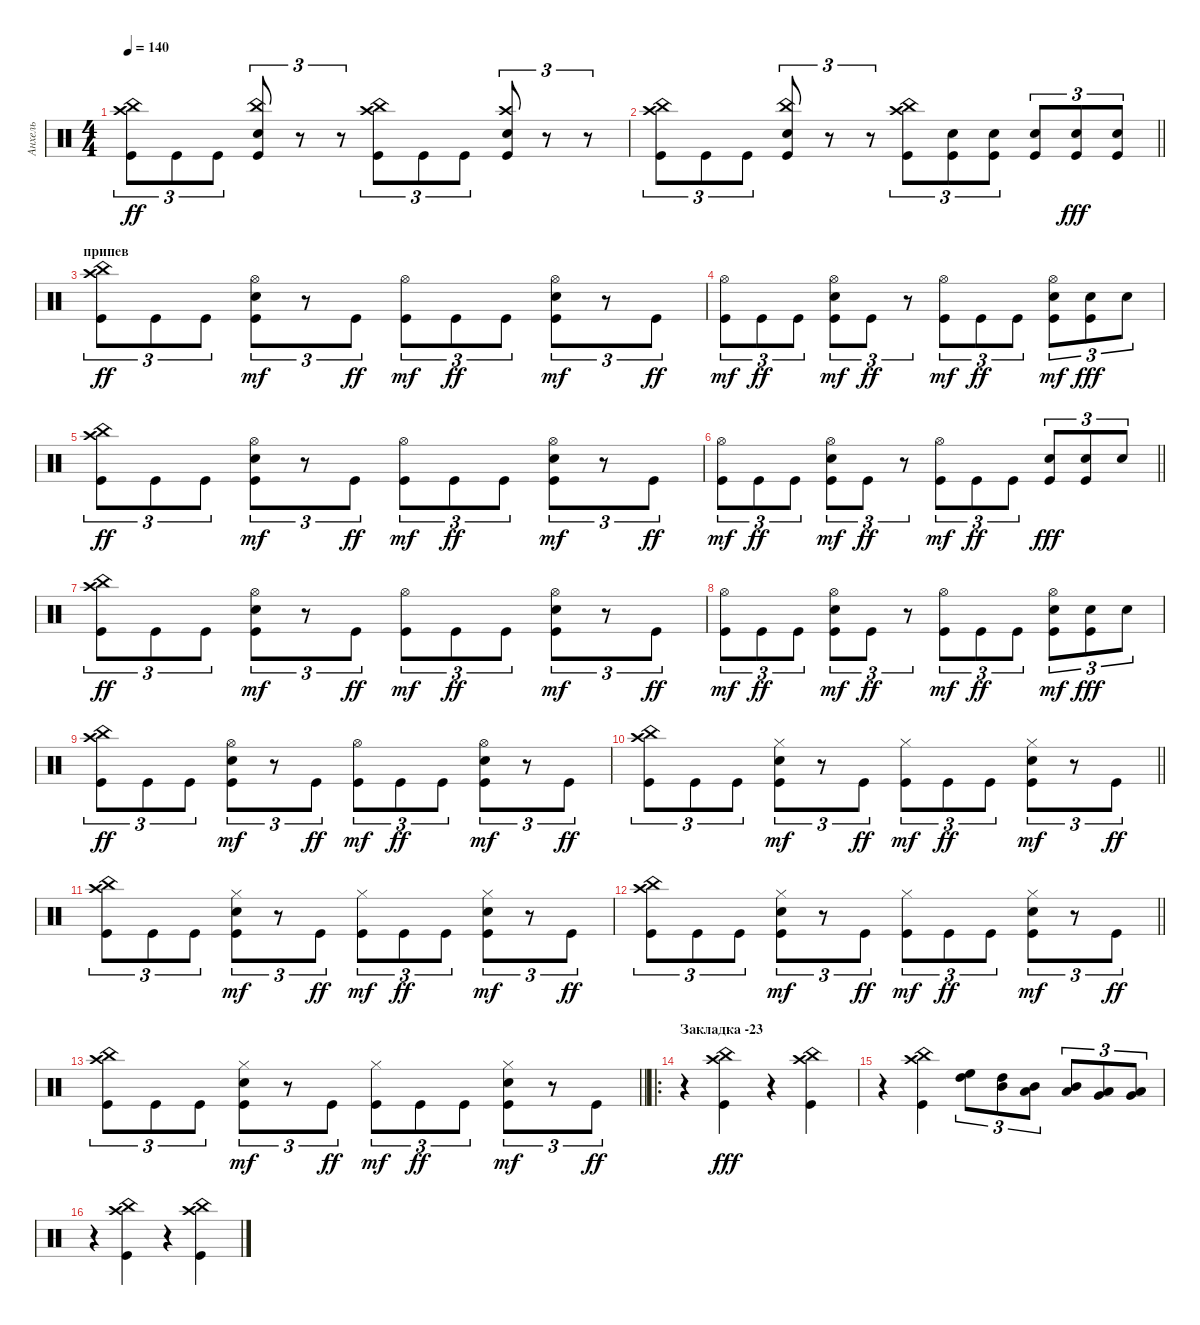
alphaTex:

\track ("Анхель" "Анхель") {instrument percussion}
\staff {score}
\articulation defaults
\ts (4 4)
\tempo 140
\clef neutral
\ks c
("Kick (hit)" "China (hit)" "Crash high (hit)").8{tu (3 2) dy ff} "Kick (hit)".8{tu (3 2)} "Kick (hit)".8{tu (3 2)} ("Kick (hit)" "Snare (hit) 2" "China (hit)").8{tu (3 2)} r.8{tu (3 2)} r.8{tu (3 2)} ("Kick (hit)" "China (hit)" "Crash high (hit)").8{tu (3 2)} "Kick (hit)".8{tu (3 2)} "Kick (hit)".8{tu (3 2)} ("Kick (hit)" "Snare (hit) 2" "Crash high (hit)").8{tu (3 2)} r.8{tu (3 2)} r.8{tu (3 2)} |
\barLineRight lightlight
("Kick (hit)" "China (hit)" "Crash high (hit)").8{tu (3 2)} "Kick (hit)".8{tu (3 2)} "Kick (hit)".8{tu (3 2)} ("Kick (hit)" "Snare (hit) 2" "China (hit)").8{tu (3 2)} r.8{tu (3 2)} r.8{tu (3 2)} ("Kick (hit)" "China (hit)" "Crash high (hit)").8{tu (3 2)} ("Kick (hit)" "Snare (hit) 2").8{tu (3 2)} ("Kick (hit)" "Snare (hit) 2").8{tu (3 2)} ("Kick (hit)" "Snare (hit) 2").8{tu (3 2)} ("Kick (hit)" "Snare (hit) 2").8{tu (3 2) dy fff} ("Kick (hit)" "Snare (hit) 2").8{tu (3 2)} |
\section ("" "припев")
("Kick (hit)" "China (hit)" "Crash high (hit)").8{tu (3 2) dy ff} "Kick (hit)".8{tu (3 2)} "Kick (hit)".8{tu (3 2)} ("Kick (hit)" "Snare (hit) 2" "Hi-Hat (open)").8{tu (3 2) dy mf} r.8{tu (3 2)} "Kick (hit)".8{tu (3 2) dy ff} ("Kick (hit)" "Hi-Hat (open)").8{tu (3 2) dy mf} "Kick (hit)".8{tu (3 2) dy ff} "Kick (hit)".8{tu (3 2)} ("Kick (hit)" "Snare (hit) 2" "Hi-Hat (open)").8{tu (3 2) dy mf} r.8{tu (3 2)} "Kick (hit)".8{tu (3 2) dy ff} |
("Kick (hit)" "Hi-Hat (open)").8{tu (3 2) dy mf} "Kick (hit)".8{tu (3 2) dy ff} "Kick (hit)".8{tu (3 2)} ("Kick (hit)" "Snare (hit) 2" "Hi-Hat (open)").8{tu (3 2) dy mf} "Kick (hit)".8{tu (3 2) dy ff} r.8{tu (3 2)} ("Kick (hit)" "Hi-Hat (open)").8{tu (3 2) dy mf} "Kick (hit)".8{tu (3 2) dy ff} "Kick (hit)".8{tu (3 2)} ("Kick (hit)" "Snare (hit) 2" "Hi-Hat (open)").8{tu (3 2) dy mf} ("Kick (hit)" "Snare (hit) 2").8{tu (3 2) dy fff} "Snare (hit) 2".8{tu (3 2)} |
("Kick (hit)" "China (hit)" "Crash high (hit)").8{tu (3 2) dy ff} "Kick (hit)".8{tu (3 2)} "Kick (hit)".8{tu (3 2)} ("Kick (hit)" "Snare (hit) 2" "Hi-Hat (open)").8{tu (3 2) dy mf} r.8{tu (3 2)} "Kick (hit)".8{tu (3 2) dy ff} ("Kick (hit)" "Hi-Hat (open)").8{tu (3 2) dy mf} "Kick (hit)".8{tu (3 2) dy ff} "Kick (hit)".8{tu (3 2)} ("Kick (hit)" "Snare (hit) 2" "Hi-Hat (open)").8{tu (3 2) dy mf} r.8{tu (3 2)} "Kick (hit)".8{tu (3 2) dy ff} |
\barLineRight lightlight
("Kick (hit)" "Hi-Hat (open)").8{tu (3 2) dy mf} "Kick (hit)".8{tu (3 2) dy ff} "Kick (hit)".8{tu (3 2)} ("Kick (hit)" "Snare (hit) 2" "Hi-Hat (open)").8{tu (3 2) dy mf} "Kick (hit)".8{tu (3 2) dy ff} r.8{tu (3 2)} ("Kick (hit)" "Hi-Hat (open)").8{tu (3 2) dy mf} "Kick (hit)".8{tu (3 2) dy ff} "Kick (hit)".8{tu (3 2)} ("Kick (hit)" "Snare (hit) 2").8{tu (3 2) dy fff} ("Kick (hit)" "Snare (hit) 2").8{tu (3 2)} "Snare (hit) 2".8{tu (3 2)} |
("Kick (hit)" "China (hit)" "Crash high (hit)").8{tu (3 2) dy ff} "Kick (hit)".8{tu (3 2)} "Kick (hit)".8{tu (3 2)} ("Kick (hit)" "Snare (hit) 2" "Hi-Hat (open)").8{tu (3 2) dy mf} r.8{tu (3 2)} "Kick (hit)".8{tu (3 2) dy ff} ("Kick (hit)" "Hi-Hat (open)").8{tu (3 2) dy mf} "Kick (hit)".8{tu (3 2) dy ff} "Kick (hit)".8{tu (3 2)} ("Kick (hit)" "Snare (hit) 2" "Hi-Hat (open)").8{tu (3 2) dy mf} r.8{tu (3 2)} "Kick (hit)".8{tu (3 2) dy ff} |
("Kick (hit)" "Hi-Hat (open)").8{tu (3 2) dy mf} "Kick (hit)".8{tu (3 2) dy ff} "Kick (hit)".8{tu (3 2)} ("Kick (hit)" "Snare (hit) 2" "Hi-Hat (open)").8{tu (3 2) dy mf} "Kick (hit)".8{tu (3 2) dy ff} r.8{tu (3 2)} ("Kick (hit)" "Hi-Hat (open)").8{tu (3 2) dy mf} "Kick (hit)".8{tu (3 2) dy ff} "Kick (hit)".8{tu (3 2)} ("Kick (hit)" "Snare (hit) 2" "Hi-Hat (open)").8{tu (3 2) dy mf} ("Kick (hit)" "Snare (hit) 2").8{tu (3 2) dy fff} "Snare (hit) 2".8{tu (3 2)} |
("Kick (hit)" "China (hit)" "Crash high (hit)").8{tu (3 2) dy ff} "Kick (hit)".8{tu (3 2)} "Kick (hit)".8{tu (3 2)} ("Kick (hit)" "Snare (hit) 2" "Hi-Hat (open)").8{tu (3 2) dy mf} r.8{tu (3 2)} "Kick (hit)".8{tu (3 2) dy ff} ("Kick (hit)" "Hi-Hat (open)").8{tu (3 2) dy mf} "Kick (hit)".8{tu (3 2) dy ff} "Kick (hit)".8{tu (3 2)} ("Kick (hit)" "Snare (hit) 2" "Hi-Hat (open)").8{tu (3 2) dy mf} r.8{tu (3 2)} "Kick (hit)".8{tu (3 2) dy ff} |
\barLineRight lightlight
("Kick (hit)" "China (hit)" "Crash high (hit)").8{tu (3 2)} "Kick (hit)".8{tu (3 2)} "Kick (hit)".8{tu (3 2)} ("Hi-Hat (closed)" "Snare (hit) 2" "Kick (hit)").8{tu (3 2) dy mf} r.8{tu (3 2)} "Kick (hit)".8{tu (3 2) dy ff} ("Kick (hit)" "Hi-Hat (closed)").8{tu (3 2) dy mf} "Kick (hit)".8{tu (3 2) dy ff} "Kick (hit)".8{tu (3 2)} ("Kick (hit)" "Snare (hit) 2" "Hi-Hat (closed)").8{tu (3 2) dy mf} r.8{tu (3 2)} "Kick (hit)".8{tu (3 2) dy ff} |
("Kick (hit)" "China (hit)" "Crash high (hit)").8{tu (3 2)} "Kick (hit)".8{tu (3 2)} "Kick (hit)".8{tu (3 2)} ("Hi-Hat (closed)" "Snare (hit) 2" "Kick (hit)").8{tu (3 2) dy mf} r.8{tu (3 2)} "Kick (hit)".8{tu (3 2) dy ff} ("Kick (hit)" "Hi-Hat (closed)").8{tu (3 2) dy mf} "Kick (hit)".8{tu (3 2) dy ff} "Kick (hit)".8{tu (3 2)} ("Kick (hit)" "Snare (hit) 2" "Hi-Hat (closed)").8{tu (3 2) dy mf} r.8{tu (3 2)} "Kick (hit)".8{tu (3 2) dy ff} |
\barLineRight lightlight
("Kick (hit)" "China (hit)" "Crash high (hit)").8{tu (3 2)} "Kick (hit)".8{tu (3 2)} "Kick (hit)".8{tu (3 2)} ("Hi-Hat (closed)" "Snare (hit) 2" "Kick (hit)").8{tu (3 2) dy mf} r.8{tu (3 2)} "Kick (hit)".8{tu (3 2) dy ff} ("Kick (hit)" "Hi-Hat (closed)").8{tu (3 2) dy mf} "Kick (hit)".8{tu (3 2) dy ff} "Kick (hit)".8{tu (3 2)} ("Kick (hit)" "Snare (hit) 2" "Hi-Hat (closed)").8{tu (3 2) dy mf} r.8{tu (3 2)} "Kick (hit)".8{tu (3 2) dy ff} |
\barLineRight lightlight
("Kick (hit)" "China (hit)" "Crash high (hit)").8{tu (3 2)} "Kick (hit)".8{tu (3 2)} "Kick (hit)".8{tu (3 2)} ("Hi-Hat (closed)" "Snare (hit) 2" "Kick (hit)").8{tu (3 2) dy mf} r.8{tu (3 2)} "Kick (hit)".8{tu (3 2) dy ff} ("Kick (hit)" "Hi-Hat (closed)").8{tu (3 2) dy mf} "Kick (hit)".8{tu (3 2) dy ff} "Kick (hit)".8{tu (3 2)} ("Kick (hit)" "Snare (hit) 2" "Hi-Hat (closed)").8{tu (3 2) dy mf} r.8{tu (3 2)} "Kick (hit)".8{tu (3 2) dy ff} |
\ro
\section ("" "Закладка -23")
r.4 ("Crash high (hit)" "Kick (hit)" "China (hit)").4{dy fff} r.4 ("Crash high (hit)" "Kick (hit)" "China (hit)").4 |
r.4 ("Crash high (hit)" "Kick (hit)" "China (hit)").4 ("High Tom (hit)" "High Floor Tom (hit)").8{tu (3 2)} ("Mid Tom (hit)" "High Tom (hit)").8{tu (3 2)} ("Low Tom (hit)" "Mid Tom (hit)").8{tu (3 2)} ("Low Tom (hit)" "Mid Tom (hit)").8{tu (3 2)} ("Very Low Tom (hit)" "Low Tom (hit)").8{tu (3 2)} ("Low Floor Tom (hit)" "Very Low Tom (hit)").8{tu (3 2)} |
r.4 ("Crash high (hit)" "Kick (hit)" "China (hit)").4 r.4 ("Crash high (hit)" "Kick (hit)" "China (hit)").4
